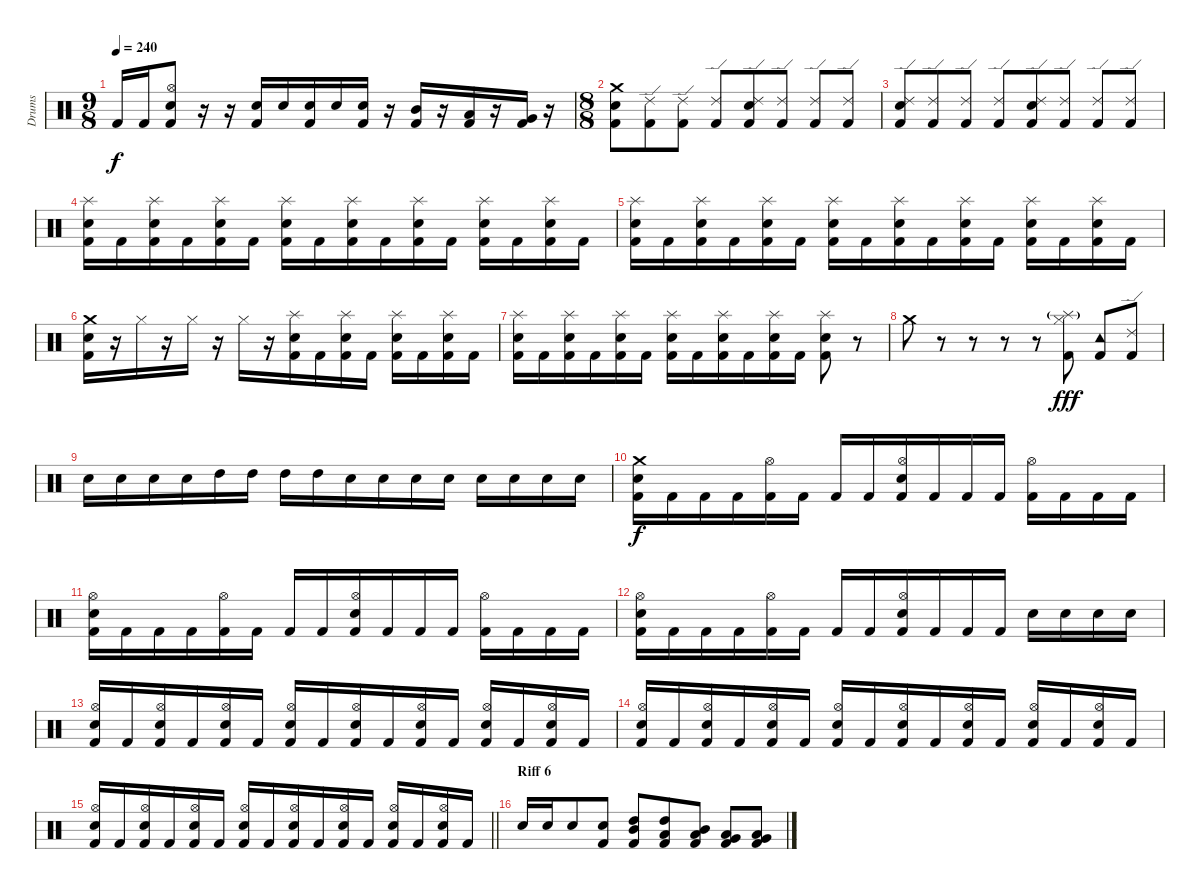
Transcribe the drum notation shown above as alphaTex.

\track ("Drums" "Drums") {instrument percussion}
\staff {score}
\articulation defaults
\ts (9 8)
\tempo 240
\clef neutral
\ks c "Kick (hit) 2".16{dy f} "Kick (hit) 2".16
("Hi-Hat (open)" "Electric Snare (hit)" "Kick (hit) 2").8 r.16 r.16 ("Electric Snare (hit)" "Kick (hit) 2").16 "Electric Snare (hit)".16 ("Electric Snare (hit)" "Kick (hit) 2").16 "Electric Snare (hit)".16 ("Electric Snare (hit)" "Kick (hit) 2").16 r.16 ("Mid Tom (hit)" "Kick (hit) 2").16 r.16 ("Low Tom (hit)" "Kick (hit) 2").16 r.16 ("Very Low Tom (hit)" "Kick (hit) 2").16 r.16 |
\ts (8 8)
("Crash medium (hit)" "Electric Snare (hit)" "Kick (hit) 2").8 ("Ride (edge) 2" "Kick (hit) 2").8 ("Ride (edge) 2" "Kick (hit) 2").8 ("Ride (edge) 2" "Kick (hit) 2").8 ("Ride (edge) 2" "Electric Snare (hit)" "Kick (hit) 2").8 ("Ride (edge) 2" "Kick (hit) 2").8 ("Ride (edge) 2" "Kick (hit) 2").8 ("Ride (edge) 2" "Kick (hit) 2").8 |
("Ride (edge) 2" "Electric Snare (hit)" "Kick (hit) 2").8 ("Ride (edge) 2" "Kick (hit) 2").8 ("Ride (edge) 2" "Kick (hit) 2").8 ("Ride (edge) 2" "Kick (hit) 2").8 ("Ride (edge) 2" "Electric Snare (hit)" "Kick (hit) 2").8 ("Ride (edge) 2" "Kick (hit) 2").8 ("Ride (edge) 2" "Kick (hit) 2").8 ("Ride (edge) 2" "Kick (hit) 2").8 |
("Splash (hit)" "Electric Snare (hit)" "Kick (hit) 2").16 "Kick (hit) 2".16 ("Splash (hit)" "Electric Snare (hit)" "Kick (hit) 2").16 "Kick (hit) 2".16 ("Splash (hit)" "Electric Snare (hit)" "Kick (hit) 2").16 "Kick (hit) 2".16 ("Splash (hit)" "Electric Snare (hit)" "Kick (hit) 2").16 "Kick (hit) 2".16 ("Splash (hit)" "Electric Snare (hit)" "Kick (hit) 2").16 "Kick (hit) 2".16 ("Splash (hit)" "Electric Snare (hit)" "Kick (hit) 2").16 "Kick (hit) 2".16 ("Splash (hit)" "Electric Snare (hit)" "Kick (hit) 2").16 "Kick (hit) 2".16 ("Splash (hit)" "Electric Snare (hit)" "Kick (hit) 2").16 "Kick (hit) 2".16 |
("Splash (hit)" "Electric Snare (hit)" "Kick (hit) 2").16 "Kick (hit) 2".16 ("Splash (hit)" "Electric Snare (hit)" "Kick (hit) 2").16 "Kick (hit) 2".16 ("Splash (hit)" "Electric Snare (hit)" "Kick (hit) 2").16 "Kick (hit) 2".16 ("Splash (hit)" "Electric Snare (hit)" "Kick (hit) 2").16 "Kick (hit) 2".16 ("Splash (hit)" "Electric Snare (hit)" "Kick (hit) 2").16 "Kick (hit) 2".16 ("Splash (hit)" "Electric Snare (hit)" "Kick (hit) 2").16 "Kick (hit) 2".16 ("Splash (hit)" "Electric Snare (hit)" "Kick (hit) 2").16 "Kick (hit) 2".16 ("Splash (hit)" "Electric Snare (hit)" "Kick (hit) 2").16 "Kick (hit) 2".16 |
("Crash medium (hit)" "Electric Snare (hit)" "Kick (hit) 2").16 r.16 "Hi-Hat (closed)".16 r.16 "Hi-Hat (closed)".16 r.16 "Hi-Hat (closed)".16 r.16 ("Splash (hit)" "Electric Snare (hit)" "Kick (hit) 2").16 "Kick (hit) 2".16 ("Splash (hit)" "Electric Snare (hit)" "Kick (hit) 2").16 "Kick (hit) 2".16 ("Splash (hit)" "Electric Snare (hit)" "Kick (hit) 2").16 "Kick (hit) 2".16 ("Splash (hit)" "Electric Snare (hit)" "Kick (hit) 2").16 "Kick (hit) 2".16 |
("Splash (hit)" "Electric Snare (hit)" "Kick (hit) 2").16 "Kick (hit) 2".16 ("Splash (hit)" "Electric Snare (hit)" "Kick (hit) 2").16 "Kick (hit) 2".16 ("Splash (hit)" "Electric Snare (hit)" "Kick (hit) 2").16 "Kick (hit) 2".16 ("Splash (hit)" "Electric Snare (hit)" "Kick (hit) 2").16 "Kick (hit) 2".16 ("Splash (hit)" "Electric Snare (hit)" "Kick (hit) 2").16 "Kick (hit) 2".16 ("Splash (hit)" "Electric Snare (hit)" "Kick (hit) 2").16 "Kick (hit) 2".16 ("Splash (hit)" "Electric Snare (hit)" "Kick (hit) 2").8 r.8 |
"Crash medium (hit)".8 r.8 r.8 r.8 r.8 ("Hi-Hat (closed)" "Splash (hit)"{g} "Kick (hit) 2").8{dy fff} ("Tambourine (hit)" "Kick (hit) 2").8 ("Ride (edge) 2" "Kick (hit) 2").8 |
"Electric Snare (hit)".16 "Electric Snare (hit)".16 "Electric Snare (hit)".16 "Electric Snare (hit)".16 "High Tom (hit)".16 "High Tom (hit)".16 "High Tom (hit)".16 "High Tom (hit)".16 "Electric Snare (hit)".16 "Electric Snare (hit)".16 "Electric Snare (hit)".16 "Electric Snare (hit)".16 "Electric Snare (hit)".16 "Electric Snare (hit)".16 "Electric Snare (hit)".16 "Electric Snare (hit)".16 |
("Crash medium (hit)" "Electric Snare (hit)" "Kick (hit) 2").16{dy f} "Kick (hit) 2".16 "Kick (hit) 2".16 "Kick (hit) 2".16 ("Hi-Hat (open)" "Kick (hit) 2").16 "Kick (hit) 2".16 "Kick (hit) 2".16 "Kick (hit) 2".16 ("Hi-Hat (open)" "Electric Snare (hit)" "Kick (hit) 2").16 "Kick (hit) 2".16 "Kick (hit) 2".16 "Kick (hit) 2".16 ("Hi-Hat (open)" "Kick (hit) 2").16 "Kick (hit) 2".16 "Kick (hit) 2".16 "Kick (hit) 2".16 |
("Hi-Hat (open)" "Electric Snare (hit)" "Kick (hit) 2").16 "Kick (hit) 2".16 "Kick (hit) 2".16 "Kick (hit) 2".16 ("Hi-Hat (open)" "Kick (hit) 2").16 "Kick (hit) 2".16 "Kick (hit) 2".16 "Kick (hit) 2".16 ("Hi-Hat (open)" "Electric Snare (hit)" "Kick (hit) 2").16 "Kick (hit) 2".16 "Kick (hit) 2".16 "Kick (hit) 2".16 ("Hi-Hat (open)" "Kick (hit) 2").16 "Kick (hit) 2".16 "Kick (hit) 2".16 "Kick (hit) 2".16 |
("Hi-Hat (open)" "Electric Snare (hit)" "Kick (hit) 2").16 "Kick (hit) 2".16 "Kick (hit) 2".16 "Kick (hit) 2".16 ("Hi-Hat (open)" "Kick (hit) 2").16 "Kick (hit) 2".16 "Kick (hit) 2".16 "Kick (hit) 2".16 ("Hi-Hat (open)" "Electric Snare (hit)" "Kick (hit) 2").16 "Kick (hit) 2".16 "Kick (hit) 2".16 "Kick (hit) 2".16 "Electric Snare (hit)".16 "Electric Snare (hit)".16 "Electric Snare (hit)".16 "Electric Snare (hit)".16 |
("Hi-Hat (open)" "Electric Snare (hit)" "Kick (hit) 2").16 "Kick (hit) 2".16 ("Hi-Hat (open)" "Electric Snare (hit)" "Kick (hit) 2").16 "Kick (hit) 2".16 ("Hi-Hat (open)" "Electric Snare (hit)" "Kick (hit) 2").16 "Kick (hit) 2".16 ("Hi-Hat (open)" "Electric Snare (hit)" "Kick (hit) 2").16 "Kick (hit) 2".16 ("Hi-Hat (open)" "Electric Snare (hit)" "Kick (hit) 2").16 "Kick (hit) 2".16 ("Hi-Hat (open)" "Electric Snare (hit)" "Kick (hit) 2").16 "Kick (hit) 2".16 ("Hi-Hat (open)" "Electric Snare (hit)" "Kick (hit) 2").16 "Kick (hit) 2".16 ("Hi-Hat (open)" "Electric Snare (hit)" "Kick (hit) 2").16 "Kick (hit) 2".16 |
("Hi-Hat (open)" "Electric Snare (hit)" "Kick (hit) 2").16 "Kick (hit) 2".16 ("Hi-Hat (open)" "Electric Snare (hit)" "Kick (hit) 2").16 "Kick (hit) 2".16 ("Hi-Hat (open)" "Electric Snare (hit)" "Kick (hit) 2").16 "Kick (hit) 2".16 ("Hi-Hat (open)" "Electric Snare (hit)" "Kick (hit) 2").16 "Kick (hit) 2".16 ("Hi-Hat (open)" "Electric Snare (hit)" "Kick (hit) 2").16 "Kick (hit) 2".16 ("Hi-Hat (open)" "Electric Snare (hit)" "Kick (hit) 2").16 "Kick (hit) 2".16 ("Hi-Hat (open)" "Electric Snare (hit)" "Kick (hit) 2").16 "Kick (hit) 2".16 ("Hi-Hat (open)" "Electric Snare (hit)" "Kick (hit) 2").16 "Kick (hit) 2".16 |
\barLineRight lightlight
("Hi-Hat (open)" "Electric Snare (hit)" "Kick (hit) 2").16 "Kick (hit) 2".16 ("Hi-Hat (open)" "Electric Snare (hit)" "Kick (hit) 2").16 "Kick (hit) 2".16 ("Hi-Hat (open)" "Electric Snare (hit)" "Kick (hit) 2").16 "Kick (hit) 2".16 ("Hi-Hat (open)" "Electric Snare (hit)" "Kick (hit) 2").16 "Kick (hit) 2".16 ("Hi-Hat (open)" "Electric Snare (hit)" "Kick (hit) 2").16 "Kick (hit) 2".16 ("Hi-Hat (open)" "Electric Snare (hit)" "Kick (hit) 2").16 "Kick (hit) 2".16 ("Hi-Hat (open)" "Electric Snare (hit)" "Kick (hit) 2").16 "Kick (hit) 2".16 ("Hi-Hat (open)" "Electric Snare (hit)" "Kick (hit) 2").16 "Kick (hit) 2".16 |
\section ("" "Riff 6")
"Electric Snare (hit)".16 "Electric Snare (hit)".16 "Electric Snare (hit)".8 ("Electric Snare (hit)" "Kick (hit) 2").8 ("Mid Tom (hit)" "High Tom (hit)" "Kick (hit) 2").8 ("Low Tom (hit)" "High Tom (hit)" "Kick (hit) 2").8 ("Low Tom (hit)" "Mid Tom (hit)" "Kick (hit) 2").8 ("Very Low Tom (hit)" "Low Tom (hit)" "Kick (hit) 2").8 ("Low Floor Tom (hit)" "Very Low Tom (hit)" "Kick (hit) 2").8
